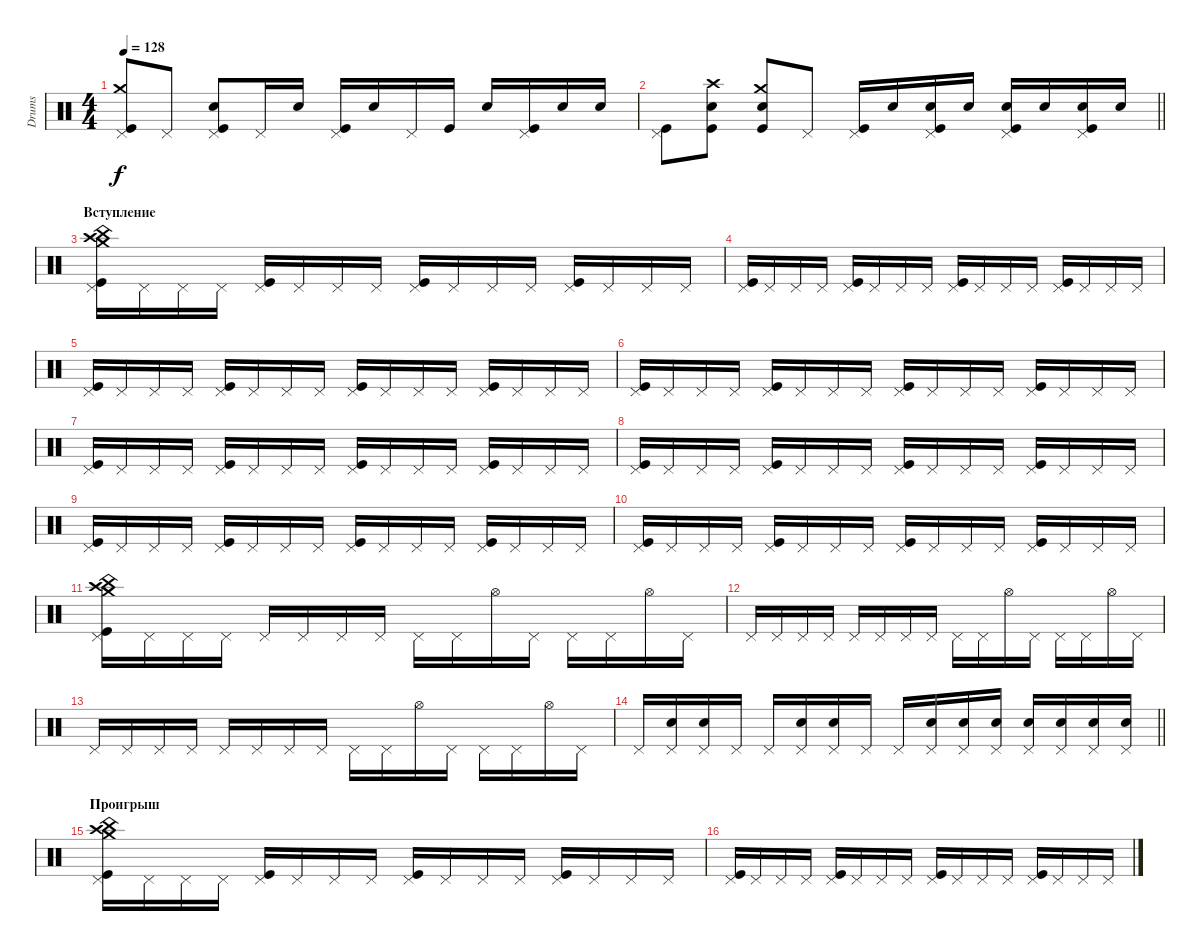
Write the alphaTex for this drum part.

\track ("Drums" "Drums") {instrument percussion}
\staff {score}
\articulation defaults
\ts (4 4)
\tempo 128
\clef neutral
\ks c
("Kick (hit)" "Crash medium (hit)" "Pedal Hi-Hat (hit)").8{dy f} "Pedal Hi-Hat (hit)".8 ("Kick (hit)" "Pedal Hi-Hat (hit)" "Snare (hit) 2").8 "Pedal Hi-Hat (hit)".16 "Snare (hit) 2".16 ("Kick (hit)" "Pedal Hi-Hat (hit)").16 "Snare (hit) 2".16 "Pedal Hi-Hat (hit)".16 "Kick (hit)".16 "Snare (hit) 2".16 ("Kick (hit)" "Pedal Hi-Hat (hit)").16 "Snare (hit) 2".16 "Snare (hit) 2".16 |
\barLineRight lightlight
("Kick (hit)" "Pedal Hi-Hat (hit)").8 ("Kick (hit)" "Crash high (hit)" "Snare (hit) 2").8 ("Kick (hit)" "Crash medium (hit)" "Snare (hit) 2").8 "Pedal Hi-Hat (hit)".8 ("Kick (hit)" "Pedal Hi-Hat (hit)").16 "Snare (hit) 2".16 ("Kick (hit)" "Pedal Hi-Hat (hit)" "Snare (hit) 2").16 "Snare (hit) 2".16 ("Kick (hit)" "Pedal Hi-Hat (hit)" "Snare (hit) 2").16 "Snare (hit) 2".16 ("Kick (hit)" "Pedal Hi-Hat (hit)" "Snare (hit) 2").16 "Snare (hit) 2".16 |
\section ("" "Вступление")
("Kick (hit)" "Pedal Hi-Hat (hit)" "Crash medium (hit)" "China (hit)" "Crash high (hit)").16 "Pedal Hi-Hat (hit)".16 "Pedal Hi-Hat (hit)".16 "Pedal Hi-Hat (hit)".16 ("Kick (hit)" "Pedal Hi-Hat (hit)").16 "Pedal Hi-Hat (hit)".16 "Pedal Hi-Hat (hit)".16 "Pedal Hi-Hat (hit)".16 ("Kick (hit)" "Pedal Hi-Hat (hit)").16 "Pedal Hi-Hat (hit)".16 "Pedal Hi-Hat (hit)".16 "Pedal Hi-Hat (hit)".16 ("Kick (hit)" "Pedal Hi-Hat (hit)").16 "Pedal Hi-Hat (hit)".16 "Pedal Hi-Hat (hit)".16 "Pedal Hi-Hat (hit)".16 |
("Kick (hit)" "Pedal Hi-Hat (hit)").16 "Pedal Hi-Hat (hit)".16 "Pedal Hi-Hat (hit)".16 "Pedal Hi-Hat (hit)".16 ("Kick (hit)" "Pedal Hi-Hat (hit)").16 "Pedal Hi-Hat (hit)".16 "Pedal Hi-Hat (hit)".16 "Pedal Hi-Hat (hit)".16 ("Kick (hit)" "Pedal Hi-Hat (hit)").16 "Pedal Hi-Hat (hit)".16 "Pedal Hi-Hat (hit)".16 "Pedal Hi-Hat (hit)".16 ("Kick (hit)" "Pedal Hi-Hat (hit)").16 "Pedal Hi-Hat (hit)".16 "Pedal Hi-Hat (hit)".16 "Pedal Hi-Hat (hit)".16 |
("Kick (hit)" "Pedal Hi-Hat (hit)").16 "Pedal Hi-Hat (hit)".16 "Pedal Hi-Hat (hit)".16 "Pedal Hi-Hat (hit)".16 ("Kick (hit)" "Pedal Hi-Hat (hit)").16 "Pedal Hi-Hat (hit)".16 "Pedal Hi-Hat (hit)".16 "Pedal Hi-Hat (hit)".16 ("Kick (hit)" "Pedal Hi-Hat (hit)").16 "Pedal Hi-Hat (hit)".16 "Pedal Hi-Hat (hit)".16 "Pedal Hi-Hat (hit)".16 ("Kick (hit)" "Pedal Hi-Hat (hit)").16 "Pedal Hi-Hat (hit)".16 "Pedal Hi-Hat (hit)".16 "Pedal Hi-Hat (hit)".16 |
("Kick (hit)" "Pedal Hi-Hat (hit)").16 "Pedal Hi-Hat (hit)".16 "Pedal Hi-Hat (hit)".16 "Pedal Hi-Hat (hit)".16 ("Kick (hit)" "Pedal Hi-Hat (hit)").16 "Pedal Hi-Hat (hit)".16 "Pedal Hi-Hat (hit)".16 "Pedal Hi-Hat (hit)".16 ("Kick (hit)" "Pedal Hi-Hat (hit)").16 "Pedal Hi-Hat (hit)".16 "Pedal Hi-Hat (hit)".16 "Pedal Hi-Hat (hit)".16 ("Kick (hit)" "Pedal Hi-Hat (hit)").16 "Pedal Hi-Hat (hit)".16 "Pedal Hi-Hat (hit)".16 "Pedal Hi-Hat (hit)".16 |
("Kick (hit)" "Pedal Hi-Hat (hit)").16 "Pedal Hi-Hat (hit)".16 "Pedal Hi-Hat (hit)".16 "Pedal Hi-Hat (hit)".16 ("Kick (hit)" "Pedal Hi-Hat (hit)").16 "Pedal Hi-Hat (hit)".16 "Pedal Hi-Hat (hit)".16 "Pedal Hi-Hat (hit)".16 ("Kick (hit)" "Pedal Hi-Hat (hit)").16 "Pedal Hi-Hat (hit)".16 "Pedal Hi-Hat (hit)".16 "Pedal Hi-Hat (hit)".16 ("Kick (hit)" "Pedal Hi-Hat (hit)").16 "Pedal Hi-Hat (hit)".16 "Pedal Hi-Hat (hit)".16 "Pedal Hi-Hat (hit)".16 |
("Kick (hit)" "Pedal Hi-Hat (hit)").16 "Pedal Hi-Hat (hit)".16 "Pedal Hi-Hat (hit)".16 "Pedal Hi-Hat (hit)".16 ("Kick (hit)" "Pedal Hi-Hat (hit)").16 "Pedal Hi-Hat (hit)".16 "Pedal Hi-Hat (hit)".16 "Pedal Hi-Hat (hit)".16 ("Kick (hit)" "Pedal Hi-Hat (hit)").16 "Pedal Hi-Hat (hit)".16 "Pedal Hi-Hat (hit)".16 "Pedal Hi-Hat (hit)".16 ("Kick (hit)" "Pedal Hi-Hat (hit)").16 "Pedal Hi-Hat (hit)".16 "Pedal Hi-Hat (hit)".16 "Pedal Hi-Hat (hit)".16 |
("Kick (hit)" "Pedal Hi-Hat (hit)").16 "Pedal Hi-Hat (hit)".16 "Pedal Hi-Hat (hit)".16 "Pedal Hi-Hat (hit)".16 ("Kick (hit)" "Pedal Hi-Hat (hit)").16 "Pedal Hi-Hat (hit)".16 "Pedal Hi-Hat (hit)".16 "Pedal Hi-Hat (hit)".16 ("Kick (hit)" "Pedal Hi-Hat (hit)").16 "Pedal Hi-Hat (hit)".16 "Pedal Hi-Hat (hit)".16 "Pedal Hi-Hat (hit)".16 ("Kick (hit)" "Pedal Hi-Hat (hit)").16 "Pedal Hi-Hat (hit)".16 "Pedal Hi-Hat (hit)".16 "Pedal Hi-Hat (hit)".16 |
("Kick (hit)" "Pedal Hi-Hat (hit)").16 "Pedal Hi-Hat (hit)".16 "Pedal Hi-Hat (hit)".16 "Pedal Hi-Hat (hit)".16 ("Kick (hit)" "Pedal Hi-Hat (hit)").16 "Pedal Hi-Hat (hit)".16 "Pedal Hi-Hat (hit)".16 "Pedal Hi-Hat (hit)".16 ("Kick (hit)" "Pedal Hi-Hat (hit)").16 "Pedal Hi-Hat (hit)".16 "Pedal Hi-Hat (hit)".16 "Pedal Hi-Hat (hit)".16 ("Kick (hit)" "Pedal Hi-Hat (hit)").16 "Pedal Hi-Hat (hit)".16 "Pedal Hi-Hat (hit)".16 "Pedal Hi-Hat (hit)".16 |
("Kick (hit)" "Pedal Hi-Hat (hit)" "Crash medium (hit)" "China (hit)" "Crash high (hit)").16 "Pedal Hi-Hat (hit)".16 "Pedal Hi-Hat (hit)".16 "Pedal Hi-Hat (hit)".16 "Pedal Hi-Hat (hit)".16 "Pedal Hi-Hat (hit)".16 "Pedal Hi-Hat (hit)".16 "Pedal Hi-Hat (hit)".16 "Pedal Hi-Hat (hit)".16 "Pedal Hi-Hat (hit)".16 "Hi-Hat (open)".16 "Pedal Hi-Hat (hit)".16 "Pedal Hi-Hat (hit)".16 "Pedal Hi-Hat (hit)".16 "Hi-Hat (open)".16 "Pedal Hi-Hat (hit)".16 |
"Pedal Hi-Hat (hit)".16 "Pedal Hi-Hat (hit)".16 "Pedal Hi-Hat (hit)".16 "Pedal Hi-Hat (hit)".16 "Pedal Hi-Hat (hit)".16 "Pedal Hi-Hat (hit)".16 "Pedal Hi-Hat (hit)".16 "Pedal Hi-Hat (hit)".16 "Pedal Hi-Hat (hit)".16 "Pedal Hi-Hat (hit)".16 "Hi-Hat (open)".16 "Pedal Hi-Hat (hit)".16 "Pedal Hi-Hat (hit)".16 "Pedal Hi-Hat (hit)".16 "Hi-Hat (open)".16 "Pedal Hi-Hat (hit)".16 |
"Pedal Hi-Hat (hit)".16 "Pedal Hi-Hat (hit)".16 "Pedal Hi-Hat (hit)".16 "Pedal Hi-Hat (hit)".16 "Pedal Hi-Hat (hit)".16 "Pedal Hi-Hat (hit)".16 "Pedal Hi-Hat (hit)".16 "Pedal Hi-Hat (hit)".16 "Pedal Hi-Hat (hit)".16 "Pedal Hi-Hat (hit)".16 "Hi-Hat (open)".16 "Pedal Hi-Hat (hit)".16 "Pedal Hi-Hat (hit)".16 "Pedal Hi-Hat (hit)".16 "Hi-Hat (open)".16 "Pedal Hi-Hat (hit)".16 |
\barLineRight lightlight "Pedal Hi-Hat (hit)".16
("Pedal Hi-Hat (hit)" "Snare (hit) 2").16 ("Pedal Hi-Hat (hit)" "Snare (hit) 2").16 "Pedal Hi-Hat (hit)".16 "Pedal Hi-Hat (hit)".16 ("Pedal Hi-Hat (hit)" "Snare (hit) 2").16 ("Pedal Hi-Hat (hit)" "Snare (hit) 2").16 "Pedal Hi-Hat (hit)".16 "Pedal Hi-Hat (hit)".16 ("Pedal Hi-Hat (hit)" "Snare (hit) 2").16 ("Pedal Hi-Hat (hit)" "Snare (hit) 2").16 ("Pedal Hi-Hat (hit)" "Snare (hit) 2").16 ("Pedal Hi-Hat (hit)" "Snare (hit) 2").16 ("Pedal Hi-Hat (hit)" "Snare (hit) 2").16 ("Pedal Hi-Hat (hit)" "Snare (hit) 2").16 ("Pedal Hi-Hat (hit)" "Snare (hit) 2").16 |
\section ("" "Проигрыш")
("Kick (hit)" "Pedal Hi-Hat (hit)" "Crash medium (hit)" "China (hit)" "Crash high (hit)").16 "Pedal Hi-Hat (hit)".16 "Pedal Hi-Hat (hit)".16 "Pedal Hi-Hat (hit)".16 ("Kick (hit)" "Pedal Hi-Hat (hit)").16 "Pedal Hi-Hat (hit)".16 "Pedal Hi-Hat (hit)".16 "Pedal Hi-Hat (hit)".16 ("Kick (hit)" "Pedal Hi-Hat (hit)").16 "Pedal Hi-Hat (hit)".16 "Pedal Hi-Hat (hit)".16 "Pedal Hi-Hat (hit)".16 ("Kick (hit)" "Pedal Hi-Hat (hit)").16 "Pedal Hi-Hat (hit)".16 "Pedal Hi-Hat (hit)".16 "Pedal Hi-Hat (hit)".16 |
("Kick (hit)" "Pedal Hi-Hat (hit)").16 "Pedal Hi-Hat (hit)".16 "Pedal Hi-Hat (hit)".16 "Pedal Hi-Hat (hit)".16 ("Kick (hit)" "Pedal Hi-Hat (hit)").16 "Pedal Hi-Hat (hit)".16 "Pedal Hi-Hat (hit)".16 "Pedal Hi-Hat (hit)".16 ("Kick (hit)" "Pedal Hi-Hat (hit)").16 "Pedal Hi-Hat (hit)".16 "Pedal Hi-Hat (hit)".16 "Pedal Hi-Hat (hit)".16 ("Kick (hit)" "Pedal Hi-Hat (hit)").16 "Pedal Hi-Hat (hit)".16 "Pedal Hi-Hat (hit)".16 "Pedal Hi-Hat (hit)".16
